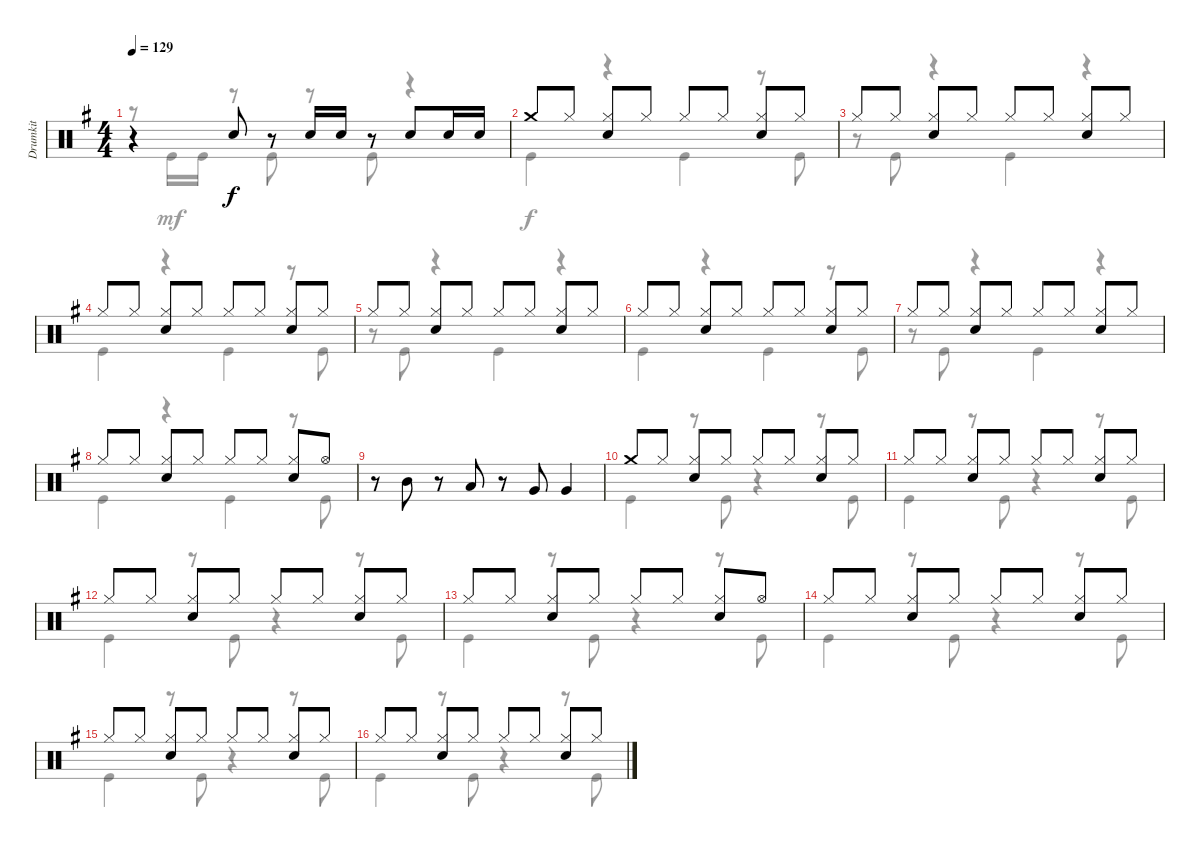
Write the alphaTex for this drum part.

\track ("Drumkit" "Drumkit") {instrument percussion}
\staff {score}
\articulation defaults
\voice
\ts (4 4)
\tempo 129
\clef neutral
\ks g
r.4{dy f} "Snare (hit) 2".8 r.8 "Snare (hit) 2".16 "Snare (hit) 2".16 r.8 "Snare (hit) 2".8 "Snare (hit) 2".16 "Snare (hit) 2".16 |
"Crash medium (hit)".8 "Hi-Hat (closed)".8 ("Hi-Hat (closed)" "Snare (hit) 2").8 "Hi-Hat (closed)".8 "Hi-Hat (closed)".8 "Hi-Hat (closed)".8 ("Hi-Hat (closed)" "Snare (hit) 2").8 "Hi-Hat (closed)".8 |
"Hi-Hat (closed)".8 "Hi-Hat (closed)".8 ("Hi-Hat (closed)" "Snare (hit) 2").8 "Hi-Hat (closed)".8 "Hi-Hat (closed)".8 "Hi-Hat (closed)".8 ("Hi-Hat (closed)" "Snare (hit) 2").8 "Hi-Hat (closed)".8 |
"Hi-Hat (closed)".8 "Hi-Hat (closed)".8 ("Hi-Hat (closed)" "Snare (hit) 2").8 "Hi-Hat (closed)".8 "Hi-Hat (closed)".8 "Hi-Hat (closed)".8 ("Hi-Hat (closed)" "Snare (hit) 2").8 "Hi-Hat (closed)".8 |
"Hi-Hat (closed)".8 "Hi-Hat (closed)".8 ("Hi-Hat (closed)" "Snare (hit) 2").8 "Hi-Hat (closed)".8 "Hi-Hat (closed)".8 "Hi-Hat (closed)".8 ("Hi-Hat (closed)" "Snare (hit) 2").8 "Hi-Hat (closed)".8 |
"Hi-Hat (closed)".8 "Hi-Hat (closed)".8 ("Hi-Hat (closed)" "Snare (hit) 2").8 "Hi-Hat (closed)".8 "Hi-Hat (closed)".8 "Hi-Hat (closed)".8 ("Hi-Hat (closed)" "Snare (hit) 2").8 "Hi-Hat (closed)".8 |
"Hi-Hat (closed)".8 "Hi-Hat (closed)".8 ("Hi-Hat (closed)" "Snare (hit) 2").8 "Hi-Hat (closed)".8 "Hi-Hat (closed)".8 "Hi-Hat (closed)".8 ("Hi-Hat (closed)" "Snare (hit) 2").8 "Hi-Hat (closed)".8 |
"Hi-Hat (closed)".8 "Hi-Hat (closed)".8 ("Hi-Hat (closed)" "Snare (hit) 2").8 "Hi-Hat (closed)".8 "Hi-Hat (closed)".8 "Hi-Hat (closed)".8 ("Hi-Hat (closed)" "Snare (hit) 2").8 "Hi-Hat (open)".8 |
r.8 "Mid Tom (hit)".8 r.8 "Low Tom (hit)".8 r.8 "Very Low Tom (hit)".8 "Very Low Tom (hit)".4 |
"Crash medium (hit)".8 "Hi-Hat (closed)".8 ("Hi-Hat (closed)" "Snare (hit) 2").8 "Hi-Hat (closed)".8 "Hi-Hat (closed)".8 "Hi-Hat (closed)".8 ("Hi-Hat (closed)" "Snare (hit) 2").8 "Hi-Hat (closed)".8 |
"Hi-Hat (closed)".8 "Hi-Hat (closed)".8 ("Hi-Hat (closed)" "Snare (hit) 2").8 "Hi-Hat (closed)".8 "Hi-Hat (closed)".8 "Hi-Hat (closed)".8 ("Hi-Hat (closed)" "Snare (hit) 2").8 "Hi-Hat (closed)".8 |
"Hi-Hat (closed)".8 "Hi-Hat (closed)".8 ("Hi-Hat (closed)" "Snare (hit) 2").8 "Hi-Hat (closed)".8 "Hi-Hat (closed)".8 "Hi-Hat (closed)".8 ("Hi-Hat (closed)" "Snare (hit) 2").8 "Hi-Hat (closed)".8 |
"Hi-Hat (closed)".8 "Hi-Hat (closed)".8 ("Hi-Hat (closed)" "Snare (hit) 2").8 "Hi-Hat (closed)".8 "Hi-Hat (closed)".8 "Hi-Hat (closed)".8 ("Hi-Hat (closed)" "Snare (hit) 2").8 "Hi-Hat (open)".8 |
"Hi-Hat (closed)".8 "Hi-Hat (closed)".8 ("Hi-Hat (closed)" "Snare (hit) 2").8 "Hi-Hat (closed)".8 "Hi-Hat (closed)".8 "Hi-Hat (closed)".8 ("Hi-Hat (closed)" "Snare (hit) 2").8 "Hi-Hat (closed)".8 |
"Hi-Hat (closed)".8 "Hi-Hat (closed)".8 ("Hi-Hat (closed)" "Snare (hit) 2").8 "Hi-Hat (closed)".8 "Hi-Hat (closed)".8 "Hi-Hat (closed)".8 ("Hi-Hat (closed)" "Snare (hit) 2").8 "Hi-Hat (closed)".8 |
"Hi-Hat (closed)".8 "Hi-Hat (closed)".8 ("Hi-Hat (closed)" "Snare (hit) 2").8 "Hi-Hat (closed)".8 "Hi-Hat (closed)".8 "Hi-Hat (closed)".8 ("Hi-Hat (closed)" "Snare (hit) 2").8 "Hi-Hat (closed)".8
\voice
\clef neutral
\ottava regular
\simile none
\ks g
r.8{dy mf} "Kick (hit)".16 "Kick (hit)".16 r.8 "Kick (hit)".8 r.8 "Kick (hit)".8 r.4 |
"Kick (hit)".4{dy f} r.4 "Kick (hit)".4 r.8 "Kick (hit)".8 |
r.8 "Kick (hit)".8 r.4 "Kick (hit)".4 r.4 |
"Kick (hit)".4 r.4 "Kick (hit)".4 r.8 "Kick (hit)".8 |
r.8 "Kick (hit)".8 r.4 "Kick (hit)".4 r.4 |
"Kick (hit)".4 r.4 "Kick (hit)".4 r.8 "Kick (hit)".8 |
r.8 "Kick (hit)".8 r.4 "Kick (hit)".4 r.4 |
"Kick (hit)".4 r.4 "Kick (hit)".4 r.8 "Kick (hit)".8 |
|
"Kick (hit)".4 r.8 "Kick (hit)".8 r.4 r.8 "Kick (hit)".8 |
"Kick (hit)".4 r.8 "Kick (hit)".8 r.4 r.8 "Kick (hit)".8 |
"Kick (hit)".4 r.8 "Kick (hit)".8 r.4 r.8 "Kick (hit)".8 |
"Kick (hit)".4 r.8 "Kick (hit)".8 r.4 r.8 "Kick (hit)".8 |
"Kick (hit)".4 r.8 "Kick (hit)".8 r.4 r.8 "Kick (hit)".8 |
"Kick (hit)".4 r.8 "Kick (hit)".8 r.4 r.8 "Kick (hit)".8 |
"Kick (hit)".4 r.8 "Kick (hit)".8 r.4 r.8 "Kick (hit)".8
